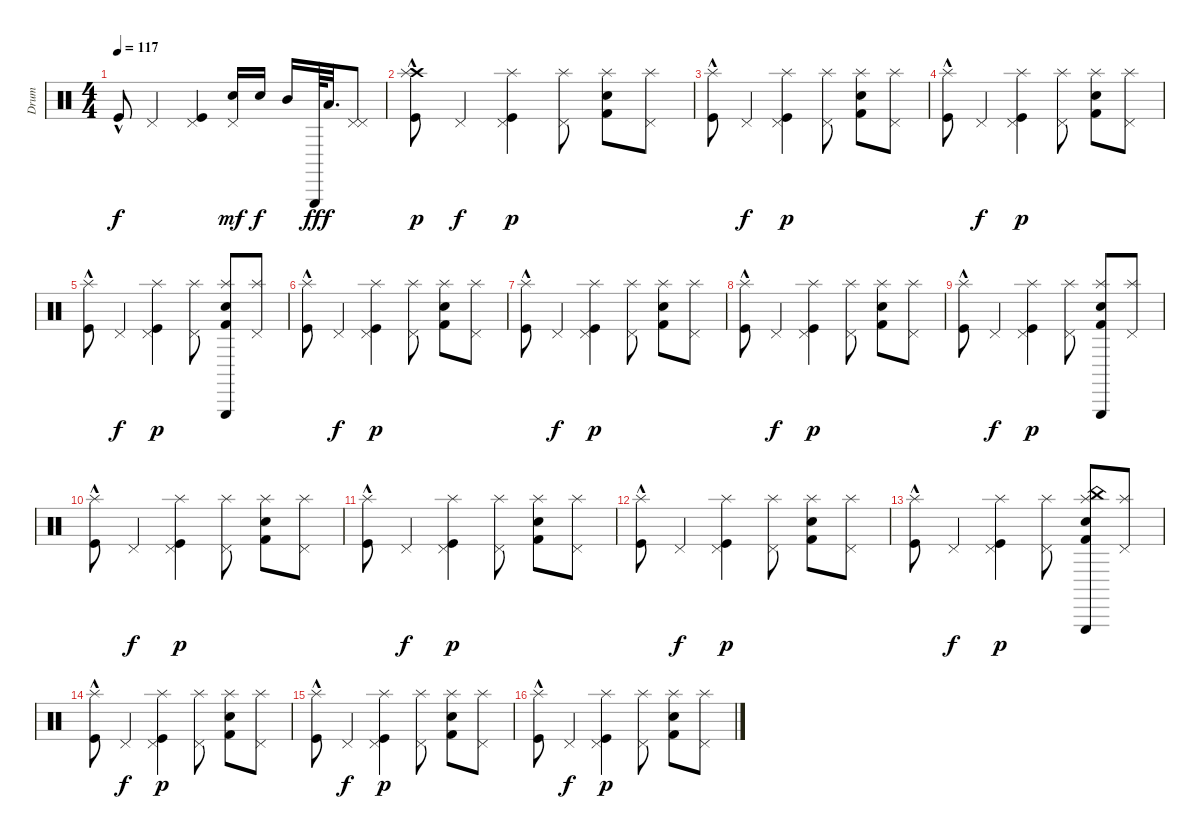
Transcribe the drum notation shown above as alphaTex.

\track ("Drum" "Drum") {instrument percussion}
\staff {score}
\articulation defaults
\ts (4 4)
\tempo 117
\clef neutral
\ks c "Kick (hit)"{hac}.8{dy f} "Pedal Hi-Hat (hit)".4
("Pedal Hi-Hat (hit)" "Kick (hit)").4 ("Pedal Hi-Hat (hit)" "Electric Snare (hit)").16{dy mf} "Electric Snare (hit)".16{dy f} "Mid Tom (hit)".16 "Triangle (hit)".64{dy ff} "Low Floor Tom (hit)".32{d dy f} ("Pedal Hi-Hat (hit)" "Pedal Hi-Hat (hit)").8 |
("Crash high (hit)" "Splash (hit)" "Kick (hit)"{hac}).8{dy p} "Pedal Hi-Hat (hit)".4{dy f} ("Splash (hit)" "Pedal Hi-Hat (hit)" "Kick (hit)").4{dy p} ("Splash (hit)" "Pedal Hi-Hat (hit)").8 ("Kick (hit) 2" "Splash (hit)" "Snare (hit) 2").8 ("Splash (hit)" "Pedal Hi-Hat (hit)").8 |
("Splash (hit)" "Kick (hit)"{hac}).8 "Pedal Hi-Hat (hit)".4{dy f} ("Splash (hit)" "Pedal Hi-Hat (hit)" "Kick (hit)").4{dy p} ("Splash (hit)" "Pedal Hi-Hat (hit)").8 ("Kick (hit) 2" "Splash (hit)" "Snare (hit) 2").8 ("Splash (hit)" "Pedal Hi-Hat (hit)").8 |
("Splash (hit)" "Kick (hit)"{hac}).8 "Pedal Hi-Hat (hit)".4{dy f} ("Splash (hit)" "Pedal Hi-Hat (hit)" "Kick (hit)").4{dy p} ("Splash (hit)" "Pedal Hi-Hat (hit)").8 ("Kick (hit) 2" "Splash (hit)" "Snare (hit) 2").8 ("Splash (hit)" "Pedal Hi-Hat (hit)").8 |
("Splash (hit)" "Kick (hit)"{hac}).8 "Pedal Hi-Hat (hit)".4{dy f} ("Pedal Hi-Hat (hit)" "Splash (hit)" "Kick (hit)").4{dy p} ("Pedal Hi-Hat (hit)" "Splash (hit)").8 ("Triangle (hit)" "Kick (hit) 2" "Splash (hit)" "Snare (hit) 2").8 ("Splash (hit)" "Pedal Hi-Hat (hit)").8 |
("Splash (hit)" "Kick (hit)"{hac}).8 "Pedal Hi-Hat (hit)".4{dy f} ("Splash (hit)" "Pedal Hi-Hat (hit)" "Kick (hit)").4{dy p} ("Splash (hit)" "Pedal Hi-Hat (hit)").8 ("Kick (hit) 2" "Splash (hit)" "Snare (hit) 2").8 ("Splash (hit)" "Pedal Hi-Hat (hit)").8 |
("Splash (hit)" "Kick (hit)"{hac}).8 "Pedal Hi-Hat (hit)".4{dy f} ("Splash (hit)" "Pedal Hi-Hat (hit)" "Kick (hit)").4{dy p} ("Splash (hit)" "Pedal Hi-Hat (hit)").8 ("Kick (hit) 2" "Splash (hit)" "Snare (hit) 2").8 ("Splash (hit)" "Pedal Hi-Hat (hit)").8 |
("Splash (hit)" "Kick (hit)"{hac}).8 "Pedal Hi-Hat (hit)".4{dy f} ("Splash (hit)" "Pedal Hi-Hat (hit)" "Kick (hit)").4{dy p} ("Splash (hit)" "Pedal Hi-Hat (hit)").8 ("Kick (hit) 2" "Splash (hit)" "Snare (hit) 2").8 ("Splash (hit)" "Pedal Hi-Hat (hit)").8 |
("Splash (hit)" "Kick (hit)"{hac}).8 "Pedal Hi-Hat (hit)".4{dy f} ("Splash (hit)" "Pedal Hi-Hat (hit)" "Kick (hit)").4{dy p} ("Pedal Hi-Hat (hit)" "Splash (hit)").8 ("Triangle (hit)" "Kick (hit) 2" "Splash (hit)" "Snare (hit) 2").8 ("Pedal Hi-Hat (hit)" "Splash (hit)").8 |
("Splash (hit)" "Kick (hit)"{hac}).8 "Pedal Hi-Hat (hit)".4{dy f} ("Splash (hit)" "Pedal Hi-Hat (hit)" "Kick (hit)").4{dy p} ("Splash (hit)" "Pedal Hi-Hat (hit)").8 ("Kick (hit) 2" "Splash (hit)" "Snare (hit) 2").8 ("Splash (hit)" "Pedal Hi-Hat (hit)").8 |
("Splash (hit)" "Kick (hit)"{hac}).8 "Pedal Hi-Hat (hit)".4{dy f} ("Splash (hit)" "Pedal Hi-Hat (hit)" "Kick (hit)").4{dy p} ("Splash (hit)" "Pedal Hi-Hat (hit)").8 ("Kick (hit) 2" "Splash (hit)" "Snare (hit) 2").8 ("Splash (hit)" "Pedal Hi-Hat (hit)").8 |
("Splash (hit)" "Kick (hit)"{hac}).8 "Pedal Hi-Hat (hit)".4{dy f} ("Splash (hit)" "Pedal Hi-Hat (hit)" "Kick (hit)").4{dy p} ("Splash (hit)" "Pedal Hi-Hat (hit)").8 ("Kick (hit) 2" "Splash (hit)" "Snare (hit) 2").8 ("Splash (hit)" "Pedal Hi-Hat (hit)").8 |
("Splash (hit)" "Kick (hit)"{hac}).8 "Pedal Hi-Hat (hit)".4{dy f} ("Splash (hit)" "Pedal Hi-Hat (hit)" "Kick (hit)").4{dy p} ("Splash (hit)" "Pedal Hi-Hat (hit)").8 ("Triangle (hit)" "Kick (hit) 2" "Splash (hit)" "China (hit)" "Snare (hit) 2").8 ("Splash (hit)" "Pedal Hi-Hat (hit)").8 |
("Splash (hit)" "Kick (hit)"{hac}).8 "Pedal Hi-Hat (hit)".4{dy f} ("Splash (hit)" "Pedal Hi-Hat (hit)" "Kick (hit)").4{dy p} ("Splash (hit)" "Pedal Hi-Hat (hit)").8 ("Kick (hit) 2" "Splash (hit)" "Snare (hit) 2").8 ("Splash (hit)" "Pedal Hi-Hat (hit)").8 |
("Splash (hit)" "Kick (hit)"{hac}).8 "Pedal Hi-Hat (hit)".4{dy f} ("Splash (hit)" "Pedal Hi-Hat (hit)" "Kick (hit)").4{dy p} ("Splash (hit)" "Pedal Hi-Hat (hit)").8 ("Kick (hit) 2" "Splash (hit)" "Snare (hit) 2").8 ("Splash (hit)" "Pedal Hi-Hat (hit)").8 |
("Splash (hit)" "Kick (hit)"{hac}).8 "Pedal Hi-Hat (hit)".4{dy f} ("Splash (hit)" "Pedal Hi-Hat (hit)" "Kick (hit)").4{dy p} ("Splash (hit)" "Pedal Hi-Hat (hit)").8 ("Kick (hit) 2" "Splash (hit)" "Snare (hit) 2").8 ("Splash (hit)" "Pedal Hi-Hat (hit)").8
